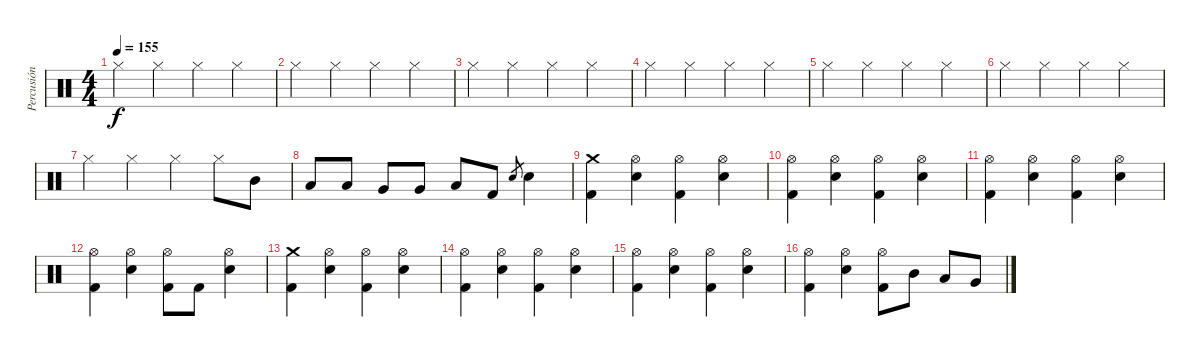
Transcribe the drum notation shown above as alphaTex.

\track ("Percusión" "Percusión") {instrument percussion}
\staff {score}
\articulation defaults
\ts (4 4)
\tempo 155
\clef neutral
\ks c "Hi-Hat (closed)".4{dy f} "Hi-Hat (closed)".4 "Hi-Hat (closed)".4 "Hi-Hat (closed)".4
|
"Hi-Hat (closed)".4 "Hi-Hat (closed)".4 "Hi-Hat (closed)".4 "Hi-Hat (closed)".4 |
"Hi-Hat (closed)".4 "Hi-Hat (closed)".4 "Hi-Hat (closed)".4 "Hi-Hat (closed)".4 |
"Hi-Hat (closed)".4 "Hi-Hat (closed)".4 "Hi-Hat (closed)".4 "Hi-Hat (closed)".4 |
"Hi-Hat (closed)".4 "Hi-Hat (closed)".4 "Hi-Hat (closed)".4 "Hi-Hat (closed)".4 |
"Hi-Hat (closed)".4 "Hi-Hat (closed)".4 "Hi-Hat (closed)".4 "Hi-Hat (closed)".4 |
"Hi-Hat (closed)".4 "Hi-Hat (closed)".4 "Hi-Hat (closed)".4 "Hi-Hat (closed)".8 "Mid Tom (hit)".8 |
"Low Tom (hit)".8 "Low Tom (hit)".8 "Very Low Tom (hit)".8 "Very Low Tom (hit)".8 "Low Floor Tom (hit)".8 "Kick (hit) 2".8 "Electric Snare (hit)".8{gr} "Electric Snare (hit)".4 |
("Crash medium (hit)" "Kick (hit) 2").4 ("Hi-Hat (open)" "Electric Snare (hit)").4 ("Hi-Hat (open)" "Kick (hit) 2").4 ("Hi-Hat (open)" "Electric Snare (hit)").4 |
("Hi-Hat (open)" "Kick (hit) 2").4 ("Hi-Hat (open)" "Electric Snare (hit)").4 ("Hi-Hat (open)" "Kick (hit) 2").4 ("Hi-Hat (open)" "Electric Snare (hit)").4 |
("Hi-Hat (open)" "Kick (hit) 2").4 ("Hi-Hat (open)" "Electric Snare (hit)").4 ("Hi-Hat (open)" "Kick (hit) 2").4 ("Hi-Hat (open)" "Electric Snare (hit)").4 |
("Hi-Hat (open)" "Kick (hit) 2").4 ("Hi-Hat (open)" "Electric Snare (hit)").4 ("Hi-Hat (open)" "Kick (hit) 2").8 "Kick (hit) 2".8 ("Hi-Hat (open)" "Electric Snare (hit)").4 |
("Crash medium (hit)" "Kick (hit) 2").4 ("Hi-Hat (open)" "Electric Snare (hit)").4 ("Hi-Hat (open)" "Kick (hit) 2").4 ("Hi-Hat (open)" "Electric Snare (hit)").4 |
("Hi-Hat (open)" "Kick (hit) 2").4 ("Hi-Hat (open)" "Electric Snare (hit)").4 ("Hi-Hat (open)" "Kick (hit) 2").4 ("Hi-Hat (open)" "Electric Snare (hit)").4 |
("Hi-Hat (open)" "Kick (hit) 2").4 ("Hi-Hat (open)" "Electric Snare (hit)").4 ("Hi-Hat (open)" "Kick (hit) 2").4 ("Hi-Hat (open)" "Electric Snare (hit)").4 |
("Hi-Hat (open)" "Kick (hit) 2").4 ("Hi-Hat (open)" "Electric Snare (hit)").4 ("Hi-Hat (open)" "Kick (hit) 2").8 "Mid Tom (hit)".8 "Low Tom (hit)".8 "Very Low Tom (hit)".8
